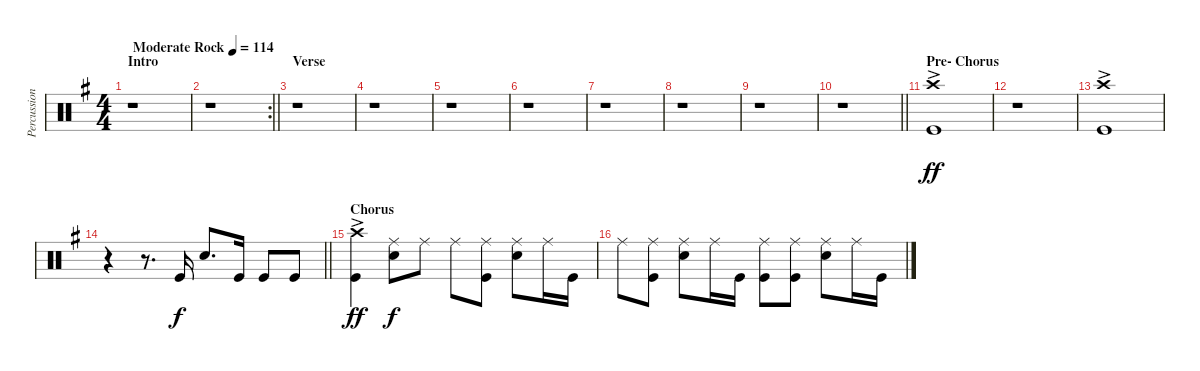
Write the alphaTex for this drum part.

\track ("Percussion" "Percussion") {instrument percussion}
\staff {score}
\articulation defaults
\ts (4 4)
\section ("" "Intro")
\tempo (114 "Moderate Rock")
\clef neutral
\ks g
r.1{dy ff} |
\rc 2
\barLineRight lightlight
r.1 |
\section ("" "Verse")
r.1 |
r.1 |
r.1 |
r.1 |
r.1 |
r.1 |
r.1 |
\barLineRight lightlight
r.1 |
\section ("" "Pre- Chorus")
("Crash high (hit)"{ac} "Kick (hit)").1 |
r.1 |
("Crash high (hit)"{ac} "Kick (hit)").1 |
\barLineRight lightlight
r.4 r.8{d} "Kick (hit)".16{dy f} "Snare (hit) 2".8{d} "Kick (hit)".16 "Kick (hit)".8 "Kick (hit)".8 |
\section ("" "Chorus")
("Crash high (hit)"{ac} "Kick (hit)").4{dy ff} ("Ride (middle)" "Snare (hit) 2").8{dy f} "Ride (middle)".8 "Ride (middle)".8 ("Ride (middle)" "Kick (hit)").8 ("Ride (middle)" "Snare (hit) 2").8 "Ride (middle)".16 "Kick (hit)".16 |
"Ride (middle)".8 ("Ride (middle)" "Kick (hit)").8 ("Ride (middle)" "Snare (hit) 2").8 "Ride (middle)".16 "Kick (hit)".16 ("Ride (middle)" "Kick (hit)").8 ("Ride (middle)" "Kick (hit)").8 ("Ride (middle)" "Snare (hit) 2").8 "Ride (middle)".16 "Kick (hit)".16
